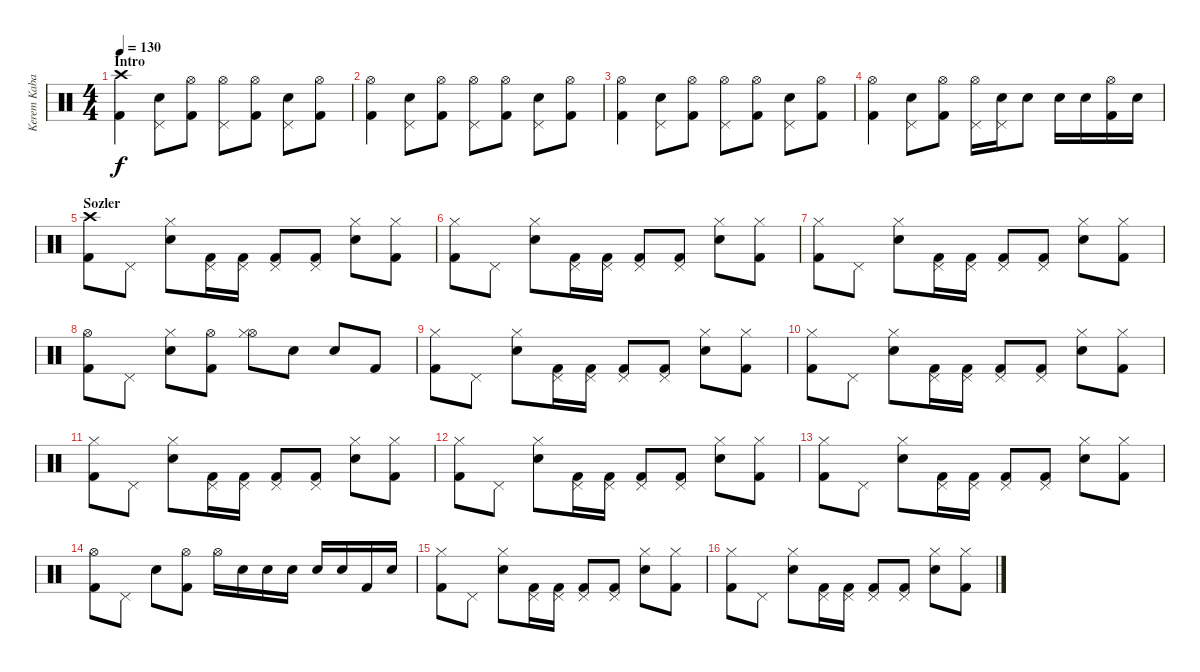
\track ("Kerem Kabadayi" "Kerem Kaba") {instrument percussion}
\staff {score}
\articulation defaults
\ts (4 4)
\section ("" "Intro")
\tempo 130
\clef neutral
\ks c
("Kick (hit) 2" "Crash high (hit)").4{dy f} ("Electric Snare (hit)" "Pedal Hi-Hat (hit)").8 ("Kick (hit) 2" "Hi-Hat (open)").8 ("Hi-Hat (open)" "Pedal Hi-Hat (hit)").8 ("Kick (hit) 2" "Hi-Hat (open)").8 ("Electric Snare (hit)" "Pedal Hi-Hat (hit)").8 ("Kick (hit) 2" "Hi-Hat (open)").8 |
("Kick (hit) 2" "Hi-Hat (open)").4 ("Electric Snare (hit)" "Pedal Hi-Hat (hit)").8 ("Kick (hit) 2" "Hi-Hat (open)").8 ("Hi-Hat (open)" "Pedal Hi-Hat (hit)").8 ("Kick (hit) 2" "Hi-Hat (open)").8 ("Electric Snare (hit)" "Pedal Hi-Hat (hit)").8 ("Kick (hit) 2" "Hi-Hat (open)").8 |
("Kick (hit) 2" "Hi-Hat (open)").4 ("Electric Snare (hit)" "Pedal Hi-Hat (hit)").8 ("Kick (hit) 2" "Hi-Hat (open)").8 ("Hi-Hat (open)" "Pedal Hi-Hat (hit)").8 ("Kick (hit) 2" "Hi-Hat (open)").8 ("Electric Snare (hit)" "Pedal Hi-Hat (hit)").8 ("Kick (hit) 2" "Hi-Hat (open)").8 |
("Kick (hit) 2" "Hi-Hat (open)").4 ("Electric Snare (hit)" "Pedal Hi-Hat (hit)").8 ("Kick (hit) 2" "Hi-Hat (open)").8 ("Hi-Hat (open)" "Pedal Hi-Hat (hit)").16 ("Electric Snare (hit)" "Pedal Hi-Hat (hit)").16 "Electric Snare (hit)".8 "Electric Snare (hit)".16 "Electric Snare (hit)".16 ("Kick (hit) 2" "Hi-Hat (open)").16 "Electric Snare (hit)".16 |
\section ("" "Sozler")
("Kick (hit) 2" "Crash high (hit)").8 "Pedal Hi-Hat (hit)".8 ("Electric Snare (hit)" "Hi-Hat (closed)").8 ("Kick (hit) 2" "Pedal Hi-Hat (hit)").16 ("Kick (hit) 2" "Pedal Hi-Hat (hit)").16 ("Kick (hit) 2" "Pedal Hi-Hat (hit)").8 ("Kick (hit) 2" "Pedal Hi-Hat (hit)").8 ("Electric Snare (hit)" "Hi-Hat (closed)").8 ("Kick (hit) 2" "Hi-Hat (closed)").8 |
("Kick (hit) 2" "Hi-Hat (closed)").8 "Pedal Hi-Hat (hit)".8 ("Electric Snare (hit)" "Hi-Hat (closed)").8 ("Kick (hit) 2" "Pedal Hi-Hat (hit)").16 ("Kick (hit) 2" "Pedal Hi-Hat (hit)").16 ("Kick (hit) 2" "Pedal Hi-Hat (hit)").8 ("Kick (hit) 2" "Pedal Hi-Hat (hit)").8 ("Electric Snare (hit)" "Hi-Hat (closed)").8 ("Kick (hit) 2" "Hi-Hat (closed)").8 |
("Kick (hit) 2" "Hi-Hat (closed)").8 "Pedal Hi-Hat (hit)".8 ("Electric Snare (hit)" "Hi-Hat (closed)").8 ("Kick (hit) 2" "Pedal Hi-Hat (hit)").16 ("Kick (hit) 2" "Pedal Hi-Hat (hit)").16 ("Kick (hit) 2" "Pedal Hi-Hat (hit)").8 ("Kick (hit) 2" "Pedal Hi-Hat (hit)").8 ("Electric Snare (hit)" "Hi-Hat (closed)").8 ("Kick (hit) 2" "Hi-Hat (closed)").8 |
("Kick (hit) 2" "Hi-Hat (open)").8 "Pedal Hi-Hat (hit)".8 ("Electric Snare (hit)" "Hi-Hat (closed)").8 ("Kick (hit) 2" "Hi-Hat (open)").8 ("Hi-Hat (open)" "Hi-Hat (closed)").8 "Electric Snare (hit)".8 "Electric Snare (hit)".8 "Kick (hit) 2".8 |
("Kick (hit) 2" "Hi-Hat (closed)").8 "Pedal Hi-Hat (hit)".8 ("Electric Snare (hit)" "Hi-Hat (closed)").8 ("Kick (hit) 2" "Pedal Hi-Hat (hit)").16 ("Kick (hit) 2" "Pedal Hi-Hat (hit)").16 ("Kick (hit) 2" "Pedal Hi-Hat (hit)").8 ("Kick (hit) 2" "Pedal Hi-Hat (hit)").8 ("Electric Snare (hit)" "Hi-Hat (closed)").8 ("Kick (hit) 2" "Hi-Hat (closed)").8 |
("Kick (hit) 2" "Hi-Hat (closed)").8 "Pedal Hi-Hat (hit)".8 ("Electric Snare (hit)" "Hi-Hat (closed)").8 ("Kick (hit) 2" "Pedal Hi-Hat (hit)").16 ("Kick (hit) 2" "Pedal Hi-Hat (hit)").16 ("Kick (hit) 2" "Pedal Hi-Hat (hit)").8 ("Kick (hit) 2" "Pedal Hi-Hat (hit)").8 ("Electric Snare (hit)" "Hi-Hat (closed)").8 ("Kick (hit) 2" "Hi-Hat (closed)").8 |
("Kick (hit) 2" "Hi-Hat (closed)").8 "Pedal Hi-Hat (hit)".8 ("Electric Snare (hit)" "Hi-Hat (closed)").8 ("Kick (hit) 2" "Pedal Hi-Hat (hit)").16 ("Kick (hit) 2" "Pedal Hi-Hat (hit)").16 ("Kick (hit) 2" "Pedal Hi-Hat (hit)").8 ("Kick (hit) 2" "Pedal Hi-Hat (hit)").8 ("Electric Snare (hit)" "Hi-Hat (closed)").8 ("Kick (hit) 2" "Hi-Hat (closed)").8 |
("Kick (hit) 2" "Hi-Hat (closed)").8 "Pedal Hi-Hat (hit)".8 ("Electric Snare (hit)" "Hi-Hat (closed)").8 ("Kick (hit) 2" "Pedal Hi-Hat (hit)").16 ("Kick (hit) 2" "Pedal Hi-Hat (hit)").16 ("Kick (hit) 2" "Pedal Hi-Hat (hit)").8 ("Kick (hit) 2" "Pedal Hi-Hat (hit)").8 ("Electric Snare (hit)" "Hi-Hat (closed)").8 ("Kick (hit) 2" "Hi-Hat (closed)").8 |
("Kick (hit) 2" "Hi-Hat (closed)").8 "Pedal Hi-Hat (hit)".8 ("Electric Snare (hit)" "Hi-Hat (closed)").8 ("Kick (hit) 2" "Pedal Hi-Hat (hit)").16 ("Kick (hit) 2" "Pedal Hi-Hat (hit)").16 ("Kick (hit) 2" "Pedal Hi-Hat (hit)").8 ("Kick (hit) 2" "Pedal Hi-Hat (hit)").8 ("Electric Snare (hit)" "Hi-Hat (closed)").8 ("Kick (hit) 2" "Hi-Hat (closed)").8 |
("Kick (hit) 2" "Hi-Hat (open)").8 "Pedal Hi-Hat (hit)".8 "Electric Snare (hit)".8 ("Kick (hit) 2" "Hi-Hat (open)").8 "Hi-Hat (open)".16 "Electric Snare (hit)".16 "Electric Snare (hit)".16 "Electric Snare (hit)".16 "Electric Snare (hit)".16 "Electric Snare (hit)".16 "Kick (hit) 2".16 "Electric Snare (hit)".16 |
("Kick (hit) 2" "Hi-Hat (closed)").8 "Pedal Hi-Hat (hit)".8 ("Electric Snare (hit)" "Hi-Hat (closed)").8 ("Kick (hit) 2" "Pedal Hi-Hat (hit)").16 ("Kick (hit) 2" "Pedal Hi-Hat (hit)").16 ("Kick (hit) 2" "Pedal Hi-Hat (hit)").8 ("Kick (hit) 2" "Pedal Hi-Hat (hit)").8 ("Electric Snare (hit)" "Hi-Hat (closed)").8 ("Kick (hit) 2" "Hi-Hat (closed)").8 |
("Kick (hit) 2" "Hi-Hat (closed)").8 "Pedal Hi-Hat (hit)".8 ("Electric Snare (hit)" "Hi-Hat (closed)").8 ("Kick (hit) 2" "Pedal Hi-Hat (hit)").16 ("Kick (hit) 2" "Pedal Hi-Hat (hit)").16 ("Kick (hit) 2" "Pedal Hi-Hat (hit)").8 ("Kick (hit) 2" "Pedal Hi-Hat (hit)").8 ("Electric Snare (hit)" "Hi-Hat (closed)").8 ("Kick (hit) 2" "Hi-Hat (closed)").8
